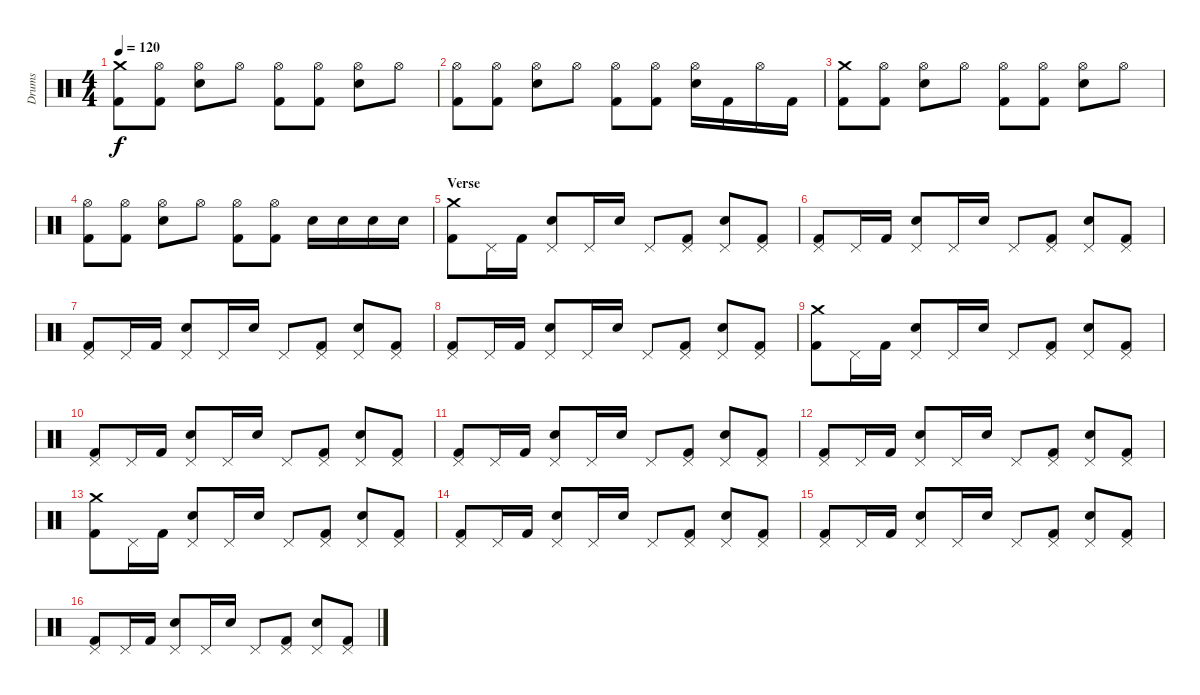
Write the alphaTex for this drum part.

\track ("Drums" "Drums") {instrument percussion}
\staff {score}
\articulation defaults
\ts (4 4)
\tempo 120
\clef neutral
\ks c
("Crash medium (hit)" "Kick (hit) 2").8{dy f} ("Hi-Hat (open)" "Kick (hit) 2").8 ("Hi-Hat (open)" "Electric Snare (hit)").8 "Hi-Hat (open)".8 ("Hi-Hat (open)" "Kick (hit) 2").8 ("Hi-Hat (open)" "Kick (hit) 2").8 ("Hi-Hat (open)" "Electric Snare (hit)").8 "Hi-Hat (open)".8 |
("Hi-Hat (open)" "Kick (hit) 2").8 ("Hi-Hat (open)" "Kick (hit) 2").8 ("Hi-Hat (open)" "Electric Snare (hit)").8 "Hi-Hat (open)".8 ("Hi-Hat (open)" "Kick (hit) 2").8 ("Hi-Hat (open)" "Kick (hit) 2").8 ("Hi-Hat (open)" "Electric Snare (hit)").16 "Kick (hit) 2".16 "Hi-Hat (open)".16 "Kick (hit) 2".16 |
("Crash medium (hit)" "Kick (hit) 2").8 ("Hi-Hat (open)" "Kick (hit) 2").8 ("Hi-Hat (open)" "Electric Snare (hit)").8 "Hi-Hat (open)".8 ("Hi-Hat (open)" "Kick (hit) 2").8 ("Hi-Hat (open)" "Kick (hit) 2").8 ("Hi-Hat (open)" "Electric Snare (hit)").8 "Hi-Hat (open)".8 |
("Hi-Hat (open)" "Kick (hit) 2").8 ("Hi-Hat (open)" "Kick (hit) 2").8 ("Hi-Hat (open)" "Electric Snare (hit)").8 "Hi-Hat (open)".8 ("Hi-Hat (open)" "Kick (hit) 2").8 ("Hi-Hat (open)" "Kick (hit) 2").8 "Electric Snare (hit)".16 "Electric Snare (hit)".16 "Electric Snare (hit)".16 "Electric Snare (hit)".16 |
\section ("" "Verse")
("Crash medium (hit)" "Kick (hit) 2").8 "Pedal Hi-Hat (hit)".16 "Kick (hit) 2".16 ("Pedal Hi-Hat (hit)" "Electric Snare (hit)").8 "Pedal Hi-Hat (hit)".16 "Electric Snare (hit)".16 "Pedal Hi-Hat (hit)".8 ("Pedal Hi-Hat (hit)" "Kick (hit) 2").8 ("Pedal Hi-Hat (hit)" "Electric Snare (hit)").8 ("Pedal Hi-Hat (hit)" "Kick (hit) 2").8 |
("Pedal Hi-Hat (hit)" "Kick (hit) 2").8 "Pedal Hi-Hat (hit)".16 "Kick (hit) 2".16 ("Pedal Hi-Hat (hit)" "Electric Snare (hit)").8 "Pedal Hi-Hat (hit)".16 "Electric Snare (hit)".16 "Pedal Hi-Hat (hit)".8 ("Pedal Hi-Hat (hit)" "Kick (hit) 2").8 ("Pedal Hi-Hat (hit)" "Electric Snare (hit)").8 ("Pedal Hi-Hat (hit)" "Kick (hit) 2").8 |
("Pedal Hi-Hat (hit)" "Kick (hit) 2").8 "Pedal Hi-Hat (hit)".16 "Kick (hit) 2".16 ("Pedal Hi-Hat (hit)" "Electric Snare (hit)").8 "Pedal Hi-Hat (hit)".16 "Electric Snare (hit)".16 "Pedal Hi-Hat (hit)".8 ("Pedal Hi-Hat (hit)" "Kick (hit) 2").8 ("Pedal Hi-Hat (hit)" "Electric Snare (hit)").8 ("Pedal Hi-Hat (hit)" "Kick (hit) 2").8 |
("Pedal Hi-Hat (hit)" "Kick (hit) 2").8 "Pedal Hi-Hat (hit)".16 "Kick (hit) 2".16 ("Pedal Hi-Hat (hit)" "Electric Snare (hit)").8 "Pedal Hi-Hat (hit)".16 "Electric Snare (hit)".16 "Pedal Hi-Hat (hit)".8 ("Pedal Hi-Hat (hit)" "Kick (hit) 2").8 ("Pedal Hi-Hat (hit)" "Electric Snare (hit)").8 ("Pedal Hi-Hat (hit)" "Kick (hit) 2").8 |
("Crash medium (hit)" "Kick (hit) 2").8 "Pedal Hi-Hat (hit)".16 "Kick (hit) 2".16 ("Pedal Hi-Hat (hit)" "Electric Snare (hit)").8 "Pedal Hi-Hat (hit)".16 "Electric Snare (hit)".16 "Pedal Hi-Hat (hit)".8 ("Pedal Hi-Hat (hit)" "Kick (hit) 2").8 ("Pedal Hi-Hat (hit)" "Electric Snare (hit)").8 ("Pedal Hi-Hat (hit)" "Kick (hit) 2").8 |
("Pedal Hi-Hat (hit)" "Kick (hit) 2").8 "Pedal Hi-Hat (hit)".16 "Kick (hit) 2".16 ("Pedal Hi-Hat (hit)" "Electric Snare (hit)").8 "Pedal Hi-Hat (hit)".16 "Electric Snare (hit)".16 "Pedal Hi-Hat (hit)".8 ("Pedal Hi-Hat (hit)" "Kick (hit) 2").8 ("Pedal Hi-Hat (hit)" "Electric Snare (hit)").8 ("Pedal Hi-Hat (hit)" "Kick (hit) 2").8 |
("Pedal Hi-Hat (hit)" "Kick (hit) 2").8 "Pedal Hi-Hat (hit)".16 "Kick (hit) 2".16 ("Pedal Hi-Hat (hit)" "Electric Snare (hit)").8 "Pedal Hi-Hat (hit)".16 "Electric Snare (hit)".16 "Pedal Hi-Hat (hit)".8 ("Pedal Hi-Hat (hit)" "Kick (hit) 2").8 ("Pedal Hi-Hat (hit)" "Electric Snare (hit)").8 ("Pedal Hi-Hat (hit)" "Kick (hit) 2").8 |
("Pedal Hi-Hat (hit)" "Kick (hit) 2").8 "Pedal Hi-Hat (hit)".16 "Kick (hit) 2".16 ("Pedal Hi-Hat (hit)" "Electric Snare (hit)").8 "Pedal Hi-Hat (hit)".16 "Electric Snare (hit)".16 "Pedal Hi-Hat (hit)".8 ("Pedal Hi-Hat (hit)" "Kick (hit) 2").8 ("Pedal Hi-Hat (hit)" "Electric Snare (hit)").8 ("Pedal Hi-Hat (hit)" "Kick (hit) 2").8 |
("Crash medium (hit)" "Kick (hit) 2").8 "Pedal Hi-Hat (hit)".16 "Kick (hit) 2".16 ("Pedal Hi-Hat (hit)" "Electric Snare (hit)").8 "Pedal Hi-Hat (hit)".16 "Electric Snare (hit)".16 "Pedal Hi-Hat (hit)".8 ("Pedal Hi-Hat (hit)" "Kick (hit) 2").8 ("Pedal Hi-Hat (hit)" "Electric Snare (hit)").8 ("Pedal Hi-Hat (hit)" "Kick (hit) 2").8 |
("Pedal Hi-Hat (hit)" "Kick (hit) 2").8 "Pedal Hi-Hat (hit)".16 "Kick (hit) 2".16 ("Pedal Hi-Hat (hit)" "Electric Snare (hit)").8 "Pedal Hi-Hat (hit)".16 "Electric Snare (hit)".16 "Pedal Hi-Hat (hit)".8 ("Pedal Hi-Hat (hit)" "Kick (hit) 2").8 ("Pedal Hi-Hat (hit)" "Electric Snare (hit)").8 ("Pedal Hi-Hat (hit)" "Kick (hit) 2").8 |
("Pedal Hi-Hat (hit)" "Kick (hit) 2").8 "Pedal Hi-Hat (hit)".16 "Kick (hit) 2".16 ("Pedal Hi-Hat (hit)" "Electric Snare (hit)").8 "Pedal Hi-Hat (hit)".16 "Electric Snare (hit)".16 "Pedal Hi-Hat (hit)".8 ("Pedal Hi-Hat (hit)" "Kick (hit) 2").8 ("Pedal Hi-Hat (hit)" "Electric Snare (hit)").8 ("Pedal Hi-Hat (hit)" "Kick (hit) 2").8 |
("Pedal Hi-Hat (hit)" "Kick (hit) 2").8 "Pedal Hi-Hat (hit)".16 "Kick (hit) 2".16 ("Pedal Hi-Hat (hit)" "Electric Snare (hit)").8 "Pedal Hi-Hat (hit)".16 "Electric Snare (hit)".16 "Pedal Hi-Hat (hit)".8 ("Pedal Hi-Hat (hit)" "Kick (hit) 2").8 ("Pedal Hi-Hat (hit)" "Electric Snare (hit)").8 ("Pedal Hi-Hat (hit)" "Kick (hit) 2").8
